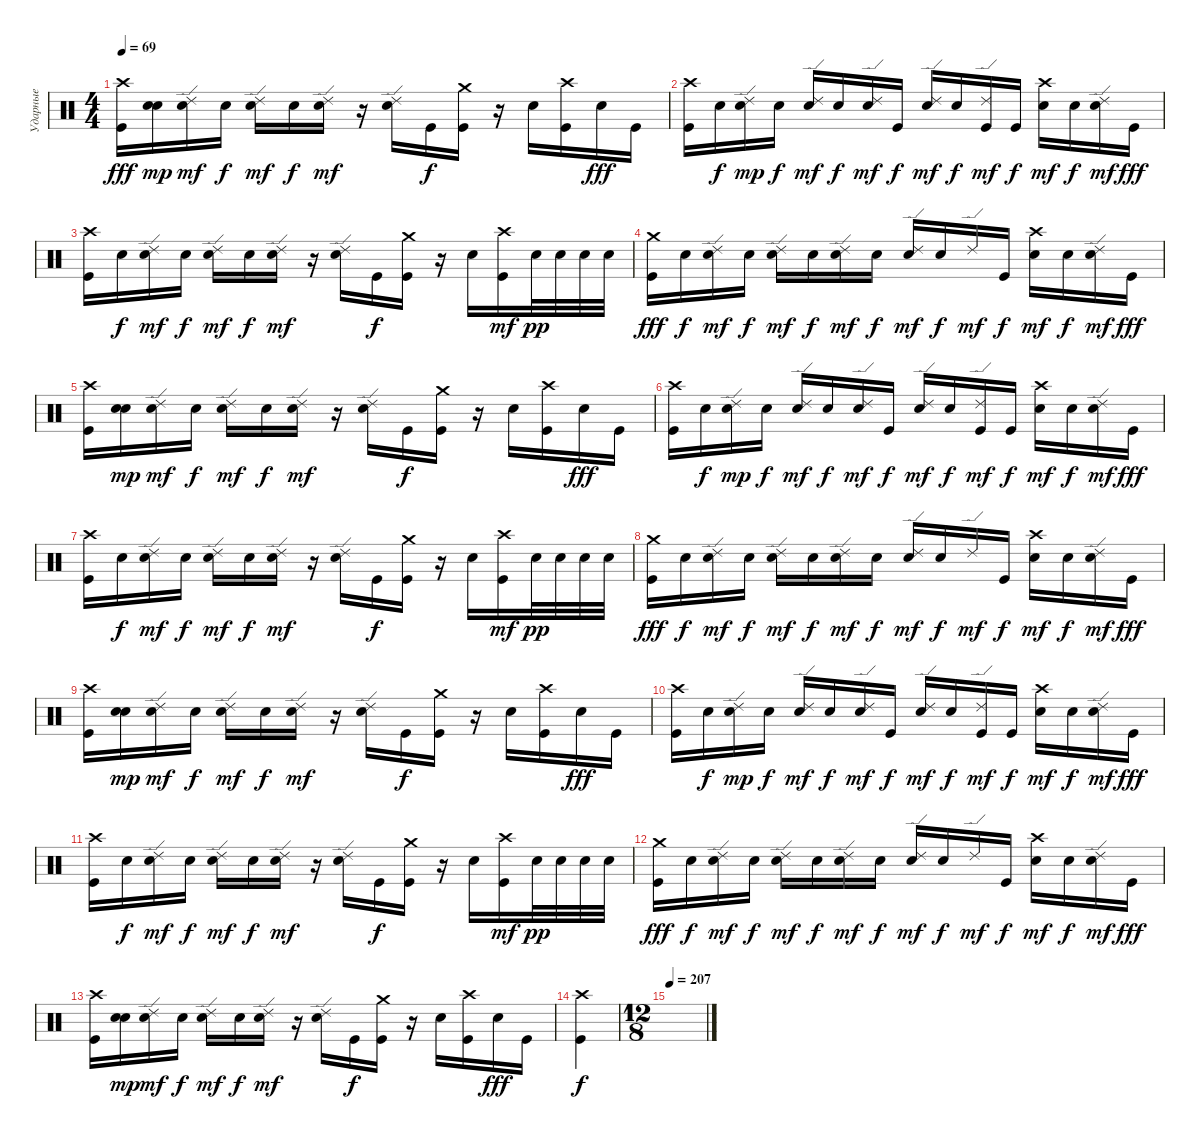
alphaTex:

\track ("Ударные" "Ударные") {instrument percussion}
\staff {score}
\articulation defaults
\ts (4 4)
\tempo 69
\clef neutral
\ks c
("Crash high (hit)" "Kick (hit)").16{dy fff} ("Snare (hit)" "Snare (hit)").16{dy mp} ("Ride (edge) 2" "Snare (hit)").16{dy mf} "Snare (hit)".16{dy f} ("Ride (edge) 2" "Electric Snare (hit)").16{dy mf} "Snare (hit)".16{dy f} ("Ride (edge) 2" "Snare (hit)").16{dy mf} r.16 ("Ride (edge) 2" "Snare (hit)").16 "Kick (hit)".16{dy f} ("Crash medium (hit)" "Kick (hit)").16 r.16 "Electric Snare (hit)".16 ("Crash high (hit)" "Kick (hit)").16 "Snare (hit)".16{dy fff} "Kick (hit)".16 |
("Crash high (hit)" "Kick (hit)").16 "Snare (hit)".16{dy f} ("Ride (edge) 2" "Snare (hit)").16{dy mp} "Snare (hit)".16{dy f} ("Ride (edge) 2" "Electric Snare (hit)").16{dy mf} "Snare (hit)".16{dy f} ("Ride (edge) 2" "Snare (hit)").16{dy mf} "Kick (hit)".16{dy f} ("Ride (edge) 2" "Snare (hit)").16{dy mf} "Snare (hit)".16{dy f} ("Ride (edge) 2" "Kick (hit)").16{dy mf} "Kick (hit)".16{dy f} ("Crash high (hit)" "Electric Snare (hit)").16{dy mf} "Snare (hit)".16{dy f} ("Ride (edge) 2" "Snare (hit)").16{dy mf} "Kick (hit)".16{dy fff} |
("Crash high (hit)" "Kick (hit)").16 "Snare (hit)".16{dy f} ("Ride (edge) 2" "Snare (hit)").16{dy mf} "Snare (hit)".16{dy f} ("Ride (edge) 2" "Electric Snare (hit)").16{dy mf} "Snare (hit)".16{dy f} ("Ride (edge) 2" "Snare (hit)").16{dy mf} r.16 ("Ride (edge) 2" "Snare (hit)").16 "Kick (hit)".16{dy f} ("Crash medium (hit)" "Kick (hit)").16 r.16 "Electric Snare (hit)".16 ("Crash high (hit)" "Kick (hit)").16{dy mf} "Electric Snare (hit)".32{dy pp} "Electric Snare (hit)".32 "Electric Snare (hit)".32 "Electric Snare (hit)".32 |
("Crash medium (hit)" "Kick (hit)").16{dy fff} "Snare (hit)".16{dy f} ("Ride (edge) 2" "Snare (hit)").16{dy mf} "Snare (hit)".16{dy f} ("Ride (edge) 2" "Electric Snare (hit)").16{dy mf} "Snare (hit)".16{dy f} ("Ride (edge) 2" "Snare (hit)").16{dy mf} "Snare (hit)".16{dy f} ("Ride (edge) 2" "Snare (hit)").16{dy mf} "Snare (hit)".16{dy f} "Ride (edge) 2".16{dy mf} "Kick (hit)".16{dy f} ("Crash high (hit)" "Electric Snare (hit)").16{dy mf} "Snare (hit)".16{dy f} ("Ride (edge) 2" "Snare (hit)").16{dy mf} "Kick (hit)".16{dy fff} |
("Crash high (hit)" "Kick (hit)").16 ("Snare (hit)" "Snare (hit)").16{dy mp} ("Ride (edge) 2" "Snare (hit)").16{dy mf} "Snare (hit)".16{dy f} ("Ride (edge) 2" "Electric Snare (hit)").16{dy mf} "Snare (hit)".16{dy f} ("Ride (edge) 2" "Snare (hit)").16{dy mf} r.16 ("Ride (edge) 2" "Snare (hit)").16 "Kick (hit)".16{dy f} ("Crash medium (hit)" "Kick (hit)").16 r.16 "Electric Snare (hit)".16 ("Crash high (hit)" "Kick (hit)").16 "Snare (hit)".16{dy fff} "Kick (hit)".16 |
("Crash high (hit)" "Kick (hit)").16 "Snare (hit)".16{dy f} ("Ride (edge) 2" "Snare (hit)").16{dy mp} "Snare (hit)".16{dy f} ("Ride (edge) 2" "Electric Snare (hit)").16{dy mf} "Snare (hit)".16{dy f} ("Ride (edge) 2" "Snare (hit)").16{dy mf} "Kick (hit)".16{dy f} ("Ride (edge) 2" "Snare (hit)").16{dy mf} "Snare (hit)".16{dy f} ("Ride (edge) 2" "Kick (hit)").16{dy mf} "Kick (hit)".16{dy f} ("Crash high (hit)" "Electric Snare (hit)").16{dy mf} "Snare (hit)".16{dy f} ("Ride (edge) 2" "Snare (hit)").16{dy mf} "Kick (hit)".16{dy fff} |
("Crash high (hit)" "Kick (hit)").16 "Snare (hit)".16{dy f} ("Ride (edge) 2" "Snare (hit)").16{dy mf} "Snare (hit)".16{dy f} ("Ride (edge) 2" "Electric Snare (hit)").16{dy mf} "Snare (hit)".16{dy f} ("Ride (edge) 2" "Snare (hit)").16{dy mf} r.16 ("Ride (edge) 2" "Snare (hit)").16 "Kick (hit)".16{dy f} ("Crash medium (hit)" "Kick (hit)").16 r.16 "Electric Snare (hit)".16 ("Crash high (hit)" "Kick (hit)").16{dy mf} "Electric Snare (hit)".32{dy pp} "Electric Snare (hit)".32 "Electric Snare (hit)".32 "Electric Snare (hit)".32 |
("Crash medium (hit)" "Kick (hit)").16{dy fff} "Snare (hit)".16{dy f} ("Ride (edge) 2" "Snare (hit)").16{dy mf} "Snare (hit)".16{dy f} ("Ride (edge) 2" "Electric Snare (hit)").16{dy mf} "Snare (hit)".16{dy f} ("Ride (edge) 2" "Snare (hit)").16{dy mf} "Snare (hit)".16{dy f} ("Ride (edge) 2" "Snare (hit)").16{dy mf} "Snare (hit)".16{dy f} "Ride (edge) 2".16{dy mf} "Kick (hit)".16{dy f} ("Crash high (hit)" "Electric Snare (hit)").16{dy mf} "Snare (hit)".16{dy f} ("Ride (edge) 2" "Snare (hit)").16{dy mf} "Kick (hit)".16{dy fff} |
("Crash high (hit)" "Kick (hit)").16 ("Snare (hit)" "Snare (hit)").16{dy mp} ("Ride (edge) 2" "Snare (hit)").16{dy mf} "Snare (hit)".16{dy f} ("Ride (edge) 2" "Electric Snare (hit)").16{dy mf} "Snare (hit)".16{dy f} ("Ride (edge) 2" "Snare (hit)").16{dy mf} r.16 ("Ride (edge) 2" "Snare (hit)").16 "Kick (hit)".16{dy f} ("Crash medium (hit)" "Kick (hit)").16 r.16 "Electric Snare (hit)".16 ("Crash high (hit)" "Kick (hit)").16 "Snare (hit)".16{dy fff} "Kick (hit)".16 |
("Crash high (hit)" "Kick (hit)").16 "Snare (hit)".16{dy f} ("Ride (edge) 2" "Snare (hit)").16{dy mp} "Snare (hit)".16{dy f} ("Ride (edge) 2" "Electric Snare (hit)").16{dy mf} "Snare (hit)".16{dy f} ("Ride (edge) 2" "Snare (hit)").16{dy mf} "Kick (hit)".16{dy f} ("Ride (edge) 2" "Snare (hit)").16{dy mf} "Snare (hit)".16{dy f} ("Ride (edge) 2" "Kick (hit)").16{dy mf} "Kick (hit)".16{dy f} ("Crash high (hit)" "Electric Snare (hit)").16{dy mf} "Snare (hit)".16{dy f} ("Ride (edge) 2" "Snare (hit)").16{dy mf} "Kick (hit)".16{dy fff} |
("Crash high (hit)" "Kick (hit)").16 "Snare (hit)".16{dy f} ("Ride (edge) 2" "Snare (hit)").16{dy mf} "Snare (hit)".16{dy f} ("Ride (edge) 2" "Electric Snare (hit)").16{dy mf} "Snare (hit)".16{dy f} ("Ride (edge) 2" "Snare (hit)").16{dy mf} r.16 ("Ride (edge) 2" "Snare (hit)").16 "Kick (hit)".16{dy f} ("Crash medium (hit)" "Kick (hit)").16 r.16 "Electric Snare (hit)".16 ("Crash high (hit)" "Kick (hit)").16{dy mf} "Electric Snare (hit)".32{dy pp} "Electric Snare (hit)".32 "Electric Snare (hit)".32 "Electric Snare (hit)".32 |
("Crash medium (hit)" "Kick (hit)").16{dy fff} "Snare (hit)".16{dy f} ("Ride (edge) 2" "Snare (hit)").16{dy mf} "Snare (hit)".16{dy f} ("Ride (edge) 2" "Electric Snare (hit)").16{dy mf} "Snare (hit)".16{dy f} ("Ride (edge) 2" "Snare (hit)").16{dy mf} "Snare (hit)".16{dy f} ("Ride (edge) 2" "Snare (hit)").16{dy mf} "Snare (hit)".16{dy f} "Ride (edge) 2".16{dy mf} "Kick (hit)".16{dy f} ("Crash high (hit)" "Electric Snare (hit)").16{dy mf} "Snare (hit)".16{dy f} ("Ride (edge) 2" "Snare (hit)").16{dy mf} "Kick (hit)".16{dy fff} |
("Crash high (hit)" "Kick (hit)").16 ("Snare (hit)" "Snare (hit)").16{dy mp} ("Ride (edge) 2" "Snare (hit)").16{dy mf} "Snare (hit)".16{dy f} ("Ride (edge) 2" "Electric Snare (hit)").16{dy mf} "Snare (hit)".16{dy f} ("Ride (edge) 2" "Snare (hit)").16{dy mf} r.16 ("Ride (edge) 2" "Snare (hit)").16 "Kick (hit)".16{dy f} ("Crash medium (hit)" "Kick (hit)").16 r.16 "Electric Snare (hit)".16 ("Crash high (hit)" "Kick (hit)").16 "Snare (hit)".16{dy fff} "Kick (hit)".16 |
("Crash high (hit)" "Kick (hit)").4{dy f} |
\ts (12 8)
\tempo 207
